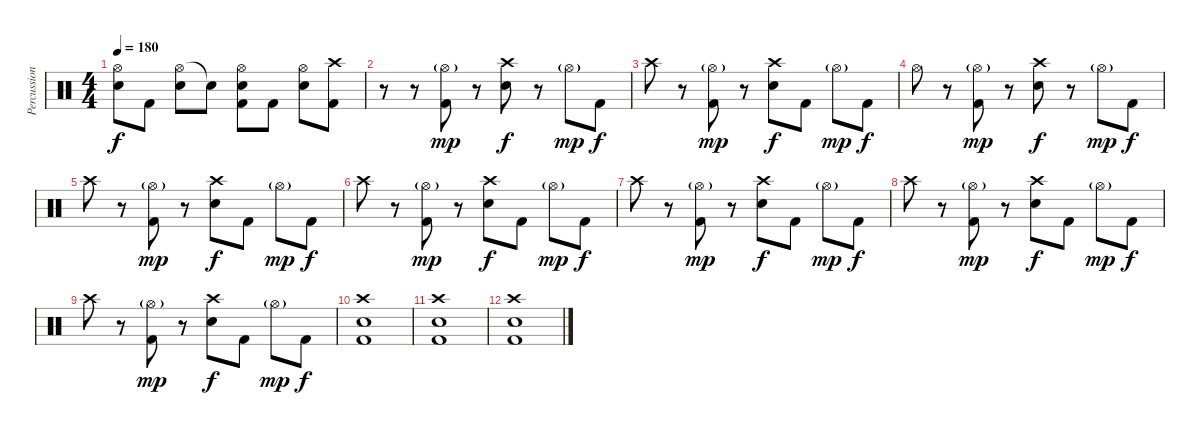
\track ("Percussion" "Percussion") {instrument percussion}
\staff {score}
\articulation defaults
\ts (4 4)
\tempo 180
\clef neutral
\ks c
("Hi-Hat (open)"{t} "Snare (hit)"{t}).8{dy f} "Kick (hit) 2".8 ("Hi-Hat (open)" "Electric Snare (hit)").8 "Snare (hit)"{t}.8 ("Hi-Hat (open)" "Electric Snare (hit)" "Kick (hit) 2").8 "Kick (hit) 2".8 ("Hi-Hat (open)" "Electric Snare (hit)").8 ("Crash high (hit)" "Kick (hit) 2").8 |
r.8 r.8 ("Hi-Hat (open)"{g} "Kick (hit) 2").8{dy mp} r.8 ("Crash high (hit)" "Electric Snare (hit)").8{dy f} r.8 "Hi-Hat (open)"{g}.8{dy mp} "Kick (hit) 2".8{dy f} |
"Crash high (hit)".8 r.8 ("Hi-Hat (open)"{g} "Kick (hit) 2").8{dy mp} r.8 ("Crash high (hit)" "Electric Snare (hit)").8{dy f} "Kick (hit) 2".8 "Hi-Hat (open)"{g}.8{dy mp} "Kick (hit) 2".8{dy f} |
"Hi-Hat (open)".8 r.8 ("Hi-Hat (open)"{g} "Kick (hit) 2").8{dy mp} r.8 ("Crash high (hit)" "Electric Snare (hit)").8{dy f} r.8 "Hi-Hat (open)"{g}.8{dy mp} "Kick (hit) 2".8{dy f} |
"Crash high (hit)".8 r.8 ("Hi-Hat (open)"{g} "Kick (hit) 2").8{dy mp} r.8 ("Crash high (hit)" "Electric Snare (hit)").8{dy f} "Kick (hit) 2".8 "Hi-Hat (open)"{g}.8{dy mp} "Kick (hit) 2".8{dy f} |
"Crash high (hit)".8 r.8 ("Hi-Hat (open)"{g} "Kick (hit) 2").8{dy mp} r.8 ("Crash high (hit)" "Electric Snare (hit)").8{dy f} "Kick (hit) 2".8 "Hi-Hat (open)"{g}.8{dy mp} "Kick (hit) 2".8{dy f} |
"Crash high (hit)".8 r.8 ("Hi-Hat (open)"{g} "Kick (hit) 2").8{dy mp} r.8 ("Crash high (hit)" "Electric Snare (hit)").8{dy f} "Kick (hit) 2".8 "Hi-Hat (open)"{g}.8{dy mp} "Kick (hit) 2".8{dy f} |
"Crash high (hit)".8 r.8 ("Hi-Hat (open)"{g} "Kick (hit) 2").8{dy mp} r.8 ("Crash high (hit)" "Electric Snare (hit)").8{dy f} "Kick (hit) 2".8 "Hi-Hat (open)"{g}.8{dy mp} "Kick (hit) 2".8{dy f} |
"Crash high (hit)".8 r.8 ("Hi-Hat (open)"{g} "Kick (hit) 2").8{dy mp} r.8 ("Crash high (hit)" "Electric Snare (hit)").8{dy f} "Kick (hit) 2".8 "Hi-Hat (open)"{g}.8{dy mp} "Kick (hit) 2".8{dy f} |
("Crash high (hit)" "Electric Snare (hit)" "Kick (hit) 2").1 |
("Crash high (hit)" "Electric Snare (hit)" "Kick (hit) 2").1 |
("Crash high (hit)" "Electric Snare (hit)" "Kick (hit) 2").1
